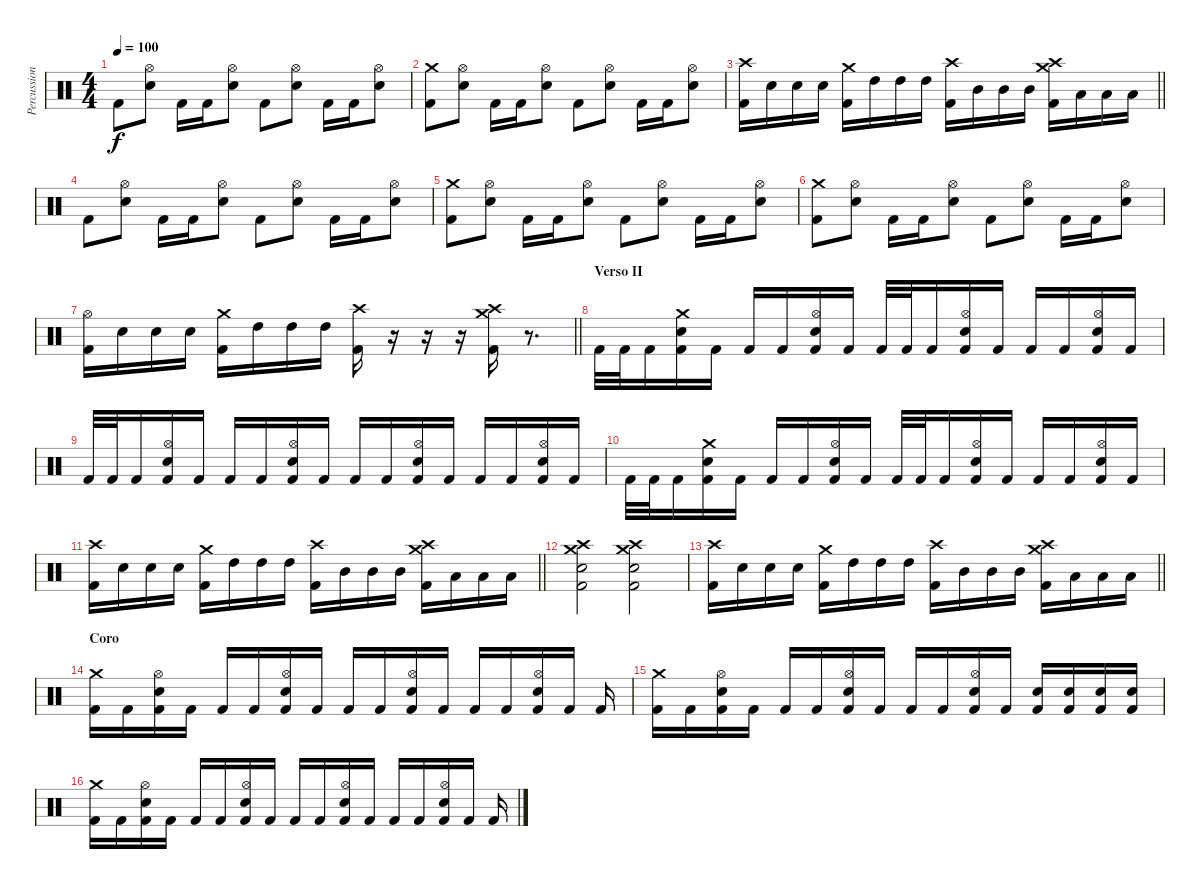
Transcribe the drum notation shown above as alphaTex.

\track ("Percussion" "Percussion") {instrument percussion}
\staff {score}
\articulation defaults
\ts (4 4)
\tempo 100
\clef neutral
\ks c "Kick (hit) 2".8{dy f}
("Hi-Hat (open)" "Electric Snare (hit)").8 "Kick (hit) 2".16 "Kick (hit) 2".16 ("Hi-Hat (open)" "Electric Snare (hit)").8 "Kick (hit) 2".8 ("Hi-Hat (open)" "Electric Snare (hit)").8 "Kick (hit) 2".16 "Kick (hit) 2".16 ("Hi-Hat (open)" "Electric Snare (hit)").8 |
("Crash medium (hit)" "Kick (hit) 2").8 ("Hi-Hat (open)" "Electric Snare (hit)").8 "Kick (hit) 2".16 "Kick (hit) 2".16 ("Hi-Hat (open)" "Electric Snare (hit)").8 "Kick (hit) 2".8 ("Hi-Hat (open)" "Electric Snare (hit)").8 "Kick (hit) 2".16 "Kick (hit) 2".16 ("Hi-Hat (open)" "Electric Snare (hit)").8 |
\barLineRight lightlight
("Crash high (hit)" "Kick (hit) 2").16 "Electric Snare (hit)".16 "Electric Snare (hit)".16 "Electric Snare (hit)".16 ("Crash medium (hit)" "Kick (hit) 2").16 "High Tom (hit)".16 "High Tom (hit)".16 "High Tom (hit)".16 ("Crash high (hit)" "Kick (hit) 2").16 "Mid Tom (hit)".16 "Mid Tom (hit)".16 "Mid Tom (hit)".16 ("Crash medium (hit)" "Crash high (hit)" "Kick (hit) 2").16 "Low Tom (hit)".16 "Low Tom (hit)".16 "Low Tom (hit)".16 |
"Kick (hit) 2".8 ("Hi-Hat (open)" "Electric Snare (hit)").8 "Kick (hit) 2".16 "Kick (hit) 2".16 ("Hi-Hat (open)" "Electric Snare (hit)").8 "Kick (hit) 2".8 ("Hi-Hat (open)" "Electric Snare (hit)").8 "Kick (hit) 2".16 "Kick (hit) 2".16 ("Hi-Hat (open)" "Electric Snare (hit)").8 |
("Crash medium (hit)" "Kick (hit) 2").8 ("Hi-Hat (open)" "Electric Snare (hit)").8 "Kick (hit) 2".16 "Kick (hit) 2".16 ("Hi-Hat (open)" "Electric Snare (hit)").8 "Kick (hit) 2".8 ("Hi-Hat (open)" "Electric Snare (hit)").8 "Kick (hit) 2".16 "Kick (hit) 2".16 ("Hi-Hat (open)" "Electric Snare (hit)").8 |
("Crash medium (hit)" "Kick (hit) 2").8 ("Hi-Hat (open)" "Electric Snare (hit)").8 "Kick (hit) 2".16 "Kick (hit) 2".16 ("Hi-Hat (open)" "Electric Snare (hit)").8 "Kick (hit) 2".8 ("Hi-Hat (open)" "Electric Snare (hit)").8 "Kick (hit) 2".16 "Kick (hit) 2".16 ("Hi-Hat (open)" "Electric Snare (hit)").8 |
\barLineRight lightlight
("Hi-Hat (open)" "Kick (hit) 2").16 "Electric Snare (hit)".16 "Electric Snare (hit)".16 "Electric Snare (hit)".16 ("Crash medium (hit)" "Kick (hit) 2").16 "High Tom (hit)".16 "High Tom (hit)".16 "High Tom (hit)".16 ("Crash high (hit)" "Kick (hit) 2").16 r.16 r.16 r.16 ("Crash medium (hit)" "Crash high (hit)" "Kick (hit) 2").16 r.8{d} |
\section ("" "Verso II")
"Kick (hit) 2".32 "Kick (hit) 2".32 "Kick (hit) 2".16 ("Crash medium (hit)" "Electric Snare (hit)" "Kick (hit) 2").16 "Kick (hit) 2".16 "Kick (hit) 2".16 "Kick (hit) 2".16 ("Hi-Hat (open)" "Electric Snare (hit)" "Kick (hit) 2").16 "Kick (hit) 2".16 "Kick (hit) 2".32 "Kick (hit) 2".32 "Kick (hit) 2".16 ("Hi-Hat (open)" "Electric Snare (hit)" "Kick (hit) 2").16 "Kick (hit) 2".16 "Kick (hit) 2".16 "Kick (hit) 2".16 ("Hi-Hat (open)" "Electric Snare (hit)" "Kick (hit) 2").16 "Kick (hit) 2".16 |
"Kick (hit) 2".32 "Kick (hit) 2".32 "Kick (hit) 2".16 ("Hi-Hat (open)" "Electric Snare (hit)" "Kick (hit) 2").16 "Kick (hit) 2".16 "Kick (hit) 2".16 "Kick (hit) 2".16 ("Hi-Hat (open)" "Electric Snare (hit)" "Kick (hit) 2").16 "Kick (hit) 2".16 "Kick (hit) 2".16 "Kick (hit) 2".16 ("Hi-Hat (open)" "Electric Snare (hit)" "Kick (hit) 2").16 "Kick (hit) 2".16 "Kick (hit) 2".16 "Kick (hit) 2".16 ("Hi-Hat (open)" "Electric Snare (hit)" "Kick (hit) 2").16 "Kick (hit) 2".16 |
"Kick (hit) 2".32 "Kick (hit) 2".32 "Kick (hit) 2".16 ("Crash medium (hit)" "Electric Snare (hit)" "Kick (hit) 2").16 "Kick (hit) 2".16 "Kick (hit) 2".16 "Kick (hit) 2".16 ("Hi-Hat (open)" "Electric Snare (hit)" "Kick (hit) 2").16 "Kick (hit) 2".16 "Kick (hit) 2".32 "Kick (hit) 2".32 "Kick (hit) 2".16 ("Hi-Hat (open)" "Electric Snare (hit)" "Kick (hit) 2").16 "Kick (hit) 2".16 "Kick (hit) 2".16 "Kick (hit) 2".16 ("Hi-Hat (open)" "Electric Snare (hit)" "Kick (hit) 2").16 "Kick (hit) 2".16 |
\barLineRight lightlight
("Crash high (hit)" "Kick (hit) 2").16 "Electric Snare (hit)".16 "Electric Snare (hit)".16 "Electric Snare (hit)".16 ("Crash medium (hit)" "Kick (hit) 2").16 "High Tom (hit)".16 "High Tom (hit)".16 "High Tom (hit)".16 ("Crash high (hit)" "Kick (hit) 2").16 "Mid Tom (hit)".16 "Mid Tom (hit)".16 "Mid Tom (hit)".16 ("Crash medium (hit)" "Crash high (hit)" "Kick (hit) 2").16 "Low Tom (hit)".16 "Low Tom (hit)".16 "Low Tom (hit)".16 |
("Crash high (hit)" "Crash medium (hit)" "Electric Snare (hit)" "Kick (hit) 2").2 ("Crash high (hit)" "Crash medium (hit)" "Electric Snare (hit)" "Kick (hit) 2").2 |
\barLineRight lightlight
("Crash high (hit)" "Kick (hit) 2").16 "Electric Snare (hit)".16 "Electric Snare (hit)".16 "Electric Snare (hit)".16 ("Crash medium (hit)" "Kick (hit) 2").16 "High Tom (hit)".16 "High Tom (hit)".16 "High Tom (hit)".16 ("Crash high (hit)" "Kick (hit) 2").16 "Mid Tom (hit)".16 "Mid Tom (hit)".16 "Mid Tom (hit)".16 ("Crash medium (hit)" "Crash high (hit)" "Kick (hit) 2").16 "Low Tom (hit)".16 "Low Tom (hit)".16 "Low Tom (hit)".16 |
\section ("" "Coro")
("Crash medium (hit)" "Kick (hit) 2").16 "Kick (hit) 2".16 ("Hi-Hat (open)" "Electric Snare (hit)" "Kick (hit) 2").16 "Kick (hit) 2".16 "Kick (hit) 2".16 "Kick (hit) 2".16 ("Hi-Hat (open)" "Electric Snare (hit)" "Kick (hit) 2").16 "Kick (hit) 2".16 "Kick (hit) 2".16 "Kick (hit) 2".16 ("Hi-Hat (open)" "Electric Snare (hit)" "Kick (hit) 2").16 "Kick (hit) 2".16 "Kick (hit) 2".16 "Kick (hit) 2".16 ("Hi-Hat (open)" "Electric Snare (hit)" "Kick (hit) 2").16 "Kick (hit) 2".16 "Kick (hit) 2".16 |
("Crash medium (hit)" "Kick (hit) 2").16 "Kick (hit) 2".16 ("Hi-Hat (open)" "Electric Snare (hit)" "Kick (hit) 2").16 "Kick (hit) 2".16 "Kick (hit) 2".16 "Kick (hit) 2".16 ("Hi-Hat (open)" "Electric Snare (hit)" "Kick (hit) 2").16 "Kick (hit) 2".16 "Kick (hit) 2".16 "Kick (hit) 2".16 ("Hi-Hat (open)" "Electric Snare (hit)" "Kick (hit) 2").16 "Kick (hit) 2".16 ("Electric Snare (hit)" "Kick (hit) 2").16 ("Electric Snare (hit)" "Kick (hit) 2").16 ("Electric Snare (hit)" "Kick (hit) 2").16 ("Electric Snare (hit)" "Kick (hit) 2").16 |
("Crash medium (hit)" "Kick (hit) 2").16 "Kick (hit) 2".16 ("Hi-Hat (open)" "Electric Snare (hit)" "Kick (hit) 2").16 "Kick (hit) 2".16 "Kick (hit) 2".16 "Kick (hit) 2".16 ("Hi-Hat (open)" "Electric Snare (hit)" "Kick (hit) 2").16 "Kick (hit) 2".16 "Kick (hit) 2".16 "Kick (hit) 2".16 ("Hi-Hat (open)" "Electric Snare (hit)" "Kick (hit) 2").16 "Kick (hit) 2".16 "Kick (hit) 2".16 "Kick (hit) 2".16 ("Hi-Hat (open)" "Electric Snare (hit)" "Kick (hit) 2").16 "Kick (hit) 2".16 "Kick (hit) 2".16
